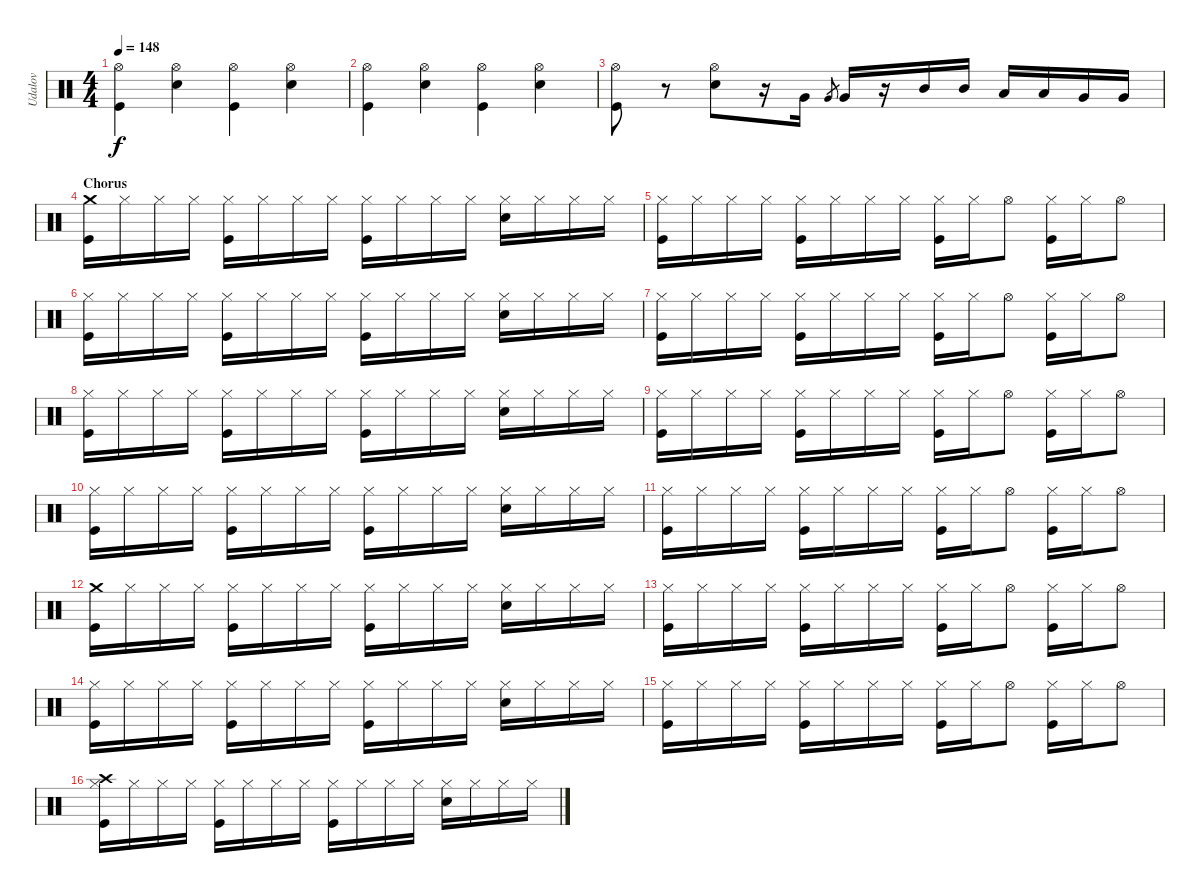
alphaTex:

\track ("Udalov" "Udalov") {instrument percussion}
\staff {score}
\articulation defaults
\ts (4 4)
\tempo 148
\clef neutral
\ks c
("Kick (hit)" "Hi-Hat (open)").4{dy f} ("Electric Snare (hit)" "Hi-Hat (open)").4 ("Kick (hit)" "Hi-Hat (open)").4 ("Electric Snare (hit)" "Hi-Hat (open)").4 |
("Kick (hit)" "Hi-Hat (open)").4 ("Electric Snare (hit)" "Hi-Hat (open)").4 ("Kick (hit)" "Hi-Hat (open)").4 ("Electric Snare (hit)" "Hi-Hat (open)").4 |
("Kick (hit)" "Hi-Hat (open)").8 r.8 ("Electric Snare (hit)" "Hi-Hat (open)").8 r.16 "Very Low Tom (hit)".16 "Very Low Tom (hit)".8{gr} "Very Low Tom (hit)".16 r.16 "Mid Tom (hit)".16 "Mid Tom (hit)".16 "Low Tom (hit)".16 "Low Tom (hit)".16 "Very Low Tom (hit)".16 "Very Low Tom (hit)".16 |
\section ("" "Chorus")
("Kick (hit)" "Crash medium (hit)").16 "Hi-Hat (closed)".16 "Hi-Hat (closed)".16 "Hi-Hat (closed)".16 ("Kick (hit)" "Hi-Hat (closed)").16 "Hi-Hat (closed)".16 "Hi-Hat (closed)".16 "Hi-Hat (closed)".16 ("Kick (hit)" "Hi-Hat (closed)").16 "Hi-Hat (closed)".16 "Hi-Hat (closed)".16 "Hi-Hat (closed)".16 ("Electric Snare (hit)" "Hi-Hat (closed)").16 "Hi-Hat (closed)".16 "Hi-Hat (closed)".16 "Hi-Hat (closed)".16 |
("Kick (hit)" "Hi-Hat (closed)").16 "Hi-Hat (closed)".16 "Hi-Hat (closed)".16 "Hi-Hat (closed)".16 ("Kick (hit)" "Hi-Hat (closed)").16 "Hi-Hat (closed)".16 "Hi-Hat (closed)".16 "Hi-Hat (closed)".16 ("Kick (hit)" "Hi-Hat (closed)").16 "Hi-Hat (closed)".16 "Hi-Hat (open)".8 ("Kick (hit)" "Hi-Hat (closed)").16 "Hi-Hat (closed)".16 "Hi-Hat (open)".8 |
("Kick (hit)" "Hi-Hat (closed)").16 "Hi-Hat (closed)".16 "Hi-Hat (closed)".16 "Hi-Hat (closed)".16 ("Kick (hit)" "Hi-Hat (closed)").16 "Hi-Hat (closed)".16 "Hi-Hat (closed)".16 "Hi-Hat (closed)".16 ("Kick (hit)" "Hi-Hat (closed)").16 "Hi-Hat (closed)".16 "Hi-Hat (closed)".16 "Hi-Hat (closed)".16 ("Electric Snare (hit)" "Hi-Hat (closed)").16 "Hi-Hat (closed)".16 "Hi-Hat (closed)".16 "Hi-Hat (closed)".16 |
("Kick (hit)" "Hi-Hat (closed)").16 "Hi-Hat (closed)".16 "Hi-Hat (closed)".16 "Hi-Hat (closed)".16 ("Kick (hit)" "Hi-Hat (closed)").16 "Hi-Hat (closed)".16 "Hi-Hat (closed)".16 "Hi-Hat (closed)".16 ("Kick (hit)" "Hi-Hat (closed)").16 "Hi-Hat (closed)".16 "Hi-Hat (open)".8 ("Kick (hit)" "Hi-Hat (closed)").16 "Hi-Hat (closed)".16 "Hi-Hat (open)".8 |
("Kick (hit)" "Hi-Hat (closed)").16 "Hi-Hat (closed)".16 "Hi-Hat (closed)".16 "Hi-Hat (closed)".16 ("Kick (hit)" "Hi-Hat (closed)").16 "Hi-Hat (closed)".16 "Hi-Hat (closed)".16 "Hi-Hat (closed)".16 ("Kick (hit)" "Hi-Hat (closed)").16 "Hi-Hat (closed)".16 "Hi-Hat (closed)".16 "Hi-Hat (closed)".16 ("Electric Snare (hit)" "Hi-Hat (closed)").16 "Hi-Hat (closed)".16 "Hi-Hat (closed)".16 "Hi-Hat (closed)".16 |
("Kick (hit)" "Hi-Hat (closed)").16 "Hi-Hat (closed)".16 "Hi-Hat (closed)".16 "Hi-Hat (closed)".16 ("Kick (hit)" "Hi-Hat (closed)").16 "Hi-Hat (closed)".16 "Hi-Hat (closed)".16 "Hi-Hat (closed)".16 ("Kick (hit)" "Hi-Hat (closed)").16 "Hi-Hat (closed)".16 "Hi-Hat (open)".8 ("Kick (hit)" "Hi-Hat (closed)").16 "Hi-Hat (closed)".16 "Hi-Hat (open)".8 |
("Kick (hit)" "Hi-Hat (closed)").16 "Hi-Hat (closed)".16 "Hi-Hat (closed)".16 "Hi-Hat (closed)".16 ("Kick (hit)" "Hi-Hat (closed)").16 "Hi-Hat (closed)".16 "Hi-Hat (closed)".16 "Hi-Hat (closed)".16 ("Kick (hit)" "Hi-Hat (closed)").16 "Hi-Hat (closed)".16 "Hi-Hat (closed)".16 "Hi-Hat (closed)".16 ("Electric Snare (hit)" "Hi-Hat (closed)").16 "Hi-Hat (closed)".16 "Hi-Hat (closed)".16 "Hi-Hat (closed)".16 |
("Kick (hit)" "Hi-Hat (closed)").16 "Hi-Hat (closed)".16 "Hi-Hat (closed)".16 "Hi-Hat (closed)".16 ("Kick (hit)" "Hi-Hat (closed)").16 "Hi-Hat (closed)".16 "Hi-Hat (closed)".16 "Hi-Hat (closed)".16 ("Kick (hit)" "Hi-Hat (closed)").16 "Hi-Hat (closed)".16 "Hi-Hat (open)".8 ("Kick (hit)" "Hi-Hat (closed)").16 "Hi-Hat (closed)".16 "Hi-Hat (open)".8 |
("Kick (hit)" "Crash medium (hit)").16 "Hi-Hat (closed)".16 "Hi-Hat (closed)".16 "Hi-Hat (closed)".16 ("Kick (hit)" "Hi-Hat (closed)").16 "Hi-Hat (closed)".16 "Hi-Hat (closed)".16 "Hi-Hat (closed)".16 ("Kick (hit)" "Hi-Hat (closed)").16 "Hi-Hat (closed)".16 "Hi-Hat (closed)".16 "Hi-Hat (closed)".16 ("Electric Snare (hit)" "Hi-Hat (closed)").16 "Hi-Hat (closed)".16 "Hi-Hat (closed)".16 "Hi-Hat (closed)".16 |
("Kick (hit)" "Hi-Hat (closed)").16 "Hi-Hat (closed)".16 "Hi-Hat (closed)".16 "Hi-Hat (closed)".16 ("Kick (hit)" "Hi-Hat (closed)").16 "Hi-Hat (closed)".16 "Hi-Hat (closed)".16 "Hi-Hat (closed)".16 ("Kick (hit)" "Hi-Hat (closed)").16 "Hi-Hat (closed)".16 "Hi-Hat (open)".8 ("Kick (hit)" "Hi-Hat (closed)").16 "Hi-Hat (closed)".16 "Hi-Hat (open)".8 |
("Kick (hit)" "Hi-Hat (closed)").16 "Hi-Hat (closed)".16 "Hi-Hat (closed)".16 "Hi-Hat (closed)".16 ("Kick (hit)" "Hi-Hat (closed)").16 "Hi-Hat (closed)".16 "Hi-Hat (closed)".16 "Hi-Hat (closed)".16 ("Kick (hit)" "Hi-Hat (closed)").16 "Hi-Hat (closed)".16 "Hi-Hat (closed)".16 "Hi-Hat (closed)".16 ("Electric Snare (hit)" "Hi-Hat (closed)").16 "Hi-Hat (closed)".16 "Hi-Hat (closed)".16 "Hi-Hat (closed)".16 |
("Kick (hit)" "Hi-Hat (closed)").16 "Hi-Hat (closed)".16 "Hi-Hat (closed)".16 "Hi-Hat (closed)".16 ("Kick (hit)" "Hi-Hat (closed)").16 "Hi-Hat (closed)".16 "Hi-Hat (closed)".16 "Hi-Hat (closed)".16 ("Kick (hit)" "Hi-Hat (closed)").16 "Hi-Hat (closed)".16 "Hi-Hat (open)".8 ("Kick (hit)" "Hi-Hat (closed)").16 "Hi-Hat (closed)".16 "Hi-Hat (open)".8 |
("Kick (hit)" "Crash high (hit)" "Hi-Hat (closed)").16 "Hi-Hat (closed)".16 "Hi-Hat (closed)".16 "Hi-Hat (closed)".16 ("Kick (hit)" "Hi-Hat (closed)").16 "Hi-Hat (closed)".16 "Hi-Hat (closed)".16 "Hi-Hat (closed)".16 ("Kick (hit)" "Hi-Hat (closed)").16 "Hi-Hat (closed)".16 "Hi-Hat (closed)".16 "Hi-Hat (closed)".16 ("Electric Snare (hit)" "Hi-Hat (closed)").16 "Hi-Hat (closed)".16 "Hi-Hat (closed)".16 "Hi-Hat (closed)".16
